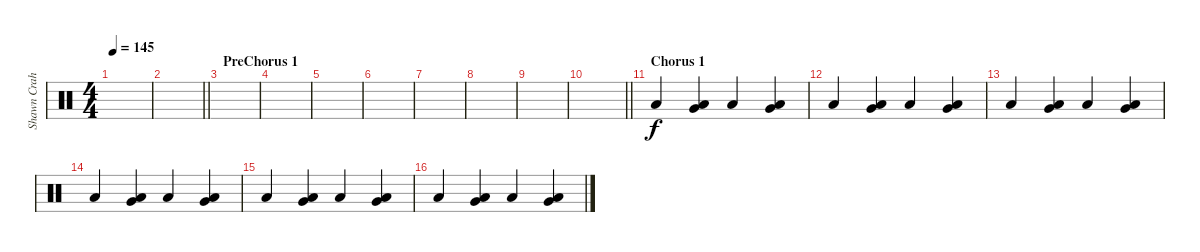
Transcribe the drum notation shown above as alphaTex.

\track ("Shawn Crahan" "Shawn Crah") {instrument percussion}
\staff {score}
\articulation defaults
\ts (4 4)
\tempo 145
\clef neutral
\ks c
|
\barLineRight lightlight
|
\section ("" "PreChorus 1")
|
|
|
|
|
|
|
\barLineRight lightlight
|
\section ("" "Chorus 1")
"Low Floor Tom (hit)".4{dy f} ("Very Low Tom (hit)" "Low Floor Tom (hit)").4 "Low Floor Tom (hit)".4 ("Very Low Tom (hit)" "Low Floor Tom (hit)").4 |
"Low Floor Tom (hit)".4 ("Very Low Tom (hit)" "Low Floor Tom (hit)").4 "Low Floor Tom (hit)".4 ("Very Low Tom (hit)" "Low Floor Tom (hit)").4 |
"Low Floor Tom (hit)".4 ("Very Low Tom (hit)" "Low Floor Tom (hit)").4 "Low Floor Tom (hit)".4 ("Very Low Tom (hit)" "Low Floor Tom (hit)").4 |
"Low Floor Tom (hit)".4 ("Very Low Tom (hit)" "Low Floor Tom (hit)").4 "Low Floor Tom (hit)".4 ("Very Low Tom (hit)" "Low Floor Tom (hit)").4 |
"Low Floor Tom (hit)".4 ("Very Low Tom (hit)" "Low Floor Tom (hit)").4 "Low Floor Tom (hit)".4 ("Very Low Tom (hit)" "Low Floor Tom (hit)").4 |
"Low Floor Tom (hit)".4 ("Very Low Tom (hit)" "Low Floor Tom (hit)").4 "Low Floor Tom (hit)".4 ("Very Low Tom (hit)" "Low Floor Tom (hit)").4
